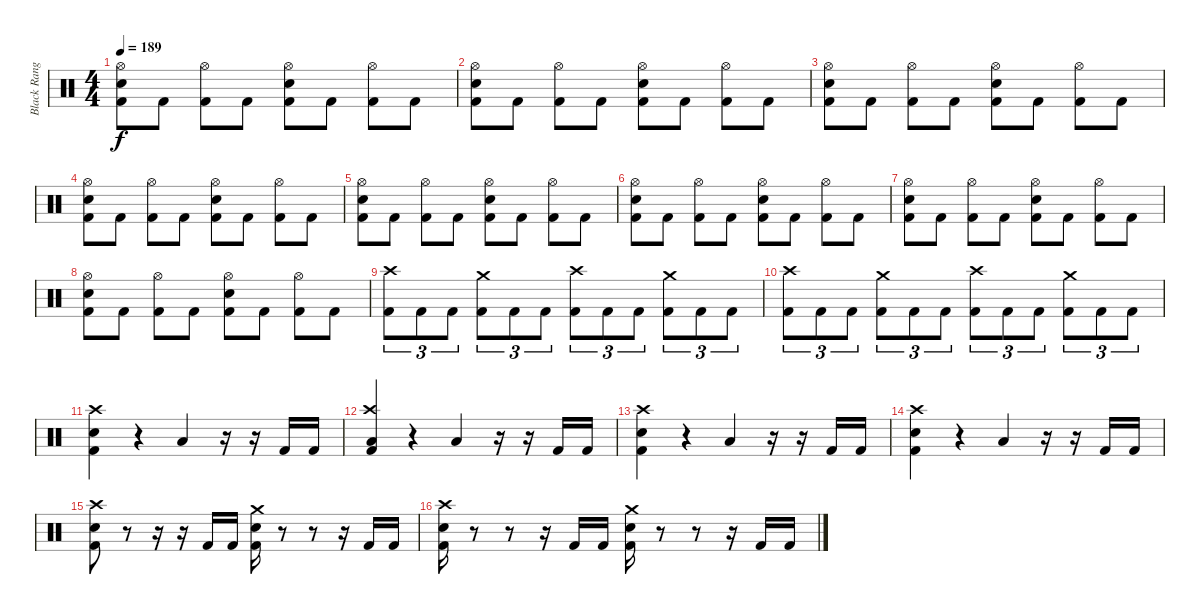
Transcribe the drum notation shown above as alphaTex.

\track ("Black Ranger (Drums)" "Black Rang") {instrument percussion}
\staff {score}
\articulation defaults
\ts (4 4)
\tempo 189
\clef neutral
\ks c
("Kick (hit) 2" "Snare (hit) 2" "Hi-Hat (open)").8{dy f} "Kick (hit) 2".8 ("Kick (hit) 2" "Hi-Hat (open)").8 "Kick (hit) 2".8 ("Kick (hit) 2" "Snare (hit) 2" "Hi-Hat (open)").8 "Kick (hit) 2".8 ("Kick (hit) 2" "Hi-Hat (open)").8 "Kick (hit) 2".8 |
("Kick (hit) 2" "Snare (hit) 2" "Hi-Hat (open)").8 "Kick (hit) 2".8 ("Kick (hit) 2" "Hi-Hat (open)").8 "Kick (hit) 2".8 ("Kick (hit) 2" "Snare (hit) 2" "Hi-Hat (open)").8 "Kick (hit) 2".8 ("Kick (hit) 2" "Hi-Hat (open)").8 "Kick (hit) 2".8 |
("Kick (hit) 2" "Snare (hit) 2" "Hi-Hat (open)").8 "Kick (hit) 2".8 ("Kick (hit) 2" "Hi-Hat (open)").8 "Kick (hit) 2".8 ("Kick (hit) 2" "Snare (hit) 2" "Hi-Hat (open)").8 "Kick (hit) 2".8 ("Kick (hit) 2" "Hi-Hat (open)").8 "Kick (hit) 2".8 |
("Kick (hit) 2" "Snare (hit) 2" "Hi-Hat (open)").8 "Kick (hit) 2".8 ("Kick (hit) 2" "Hi-Hat (open)").8 "Kick (hit) 2".8 ("Kick (hit) 2" "Snare (hit) 2" "Hi-Hat (open)").8 "Kick (hit) 2".8 ("Kick (hit) 2" "Hi-Hat (open)").8 "Kick (hit) 2".8 |
("Kick (hit) 2" "Snare (hit) 2" "Hi-Hat (open)").8 "Kick (hit) 2".8 ("Kick (hit) 2" "Hi-Hat (open)").8 "Kick (hit) 2".8 ("Kick (hit) 2" "Snare (hit) 2" "Hi-Hat (open)").8 "Kick (hit) 2".8 ("Kick (hit) 2" "Hi-Hat (open)").8 "Kick (hit) 2".8 |
("Kick (hit) 2" "Snare (hit) 2" "Hi-Hat (open)").8 "Kick (hit) 2".8 ("Kick (hit) 2" "Hi-Hat (open)").8 "Kick (hit) 2".8 ("Kick (hit) 2" "Snare (hit) 2" "Hi-Hat (open)").8 "Kick (hit) 2".8 ("Kick (hit) 2" "Hi-Hat (open)").8 "Kick (hit) 2".8 |
("Kick (hit) 2" "Snare (hit) 2" "Hi-Hat (open)").8 "Kick (hit) 2".8 ("Kick (hit) 2" "Hi-Hat (open)").8 "Kick (hit) 2".8 ("Kick (hit) 2" "Snare (hit) 2" "Hi-Hat (open)").8 "Kick (hit) 2".8 ("Kick (hit) 2" "Hi-Hat (open)").8 "Kick (hit) 2".8 |
("Kick (hit) 2" "Snare (hit) 2" "Hi-Hat (open)").8 "Kick (hit) 2".8 ("Kick (hit) 2" "Hi-Hat (open)").8 "Kick (hit) 2".8 ("Kick (hit) 2" "Snare (hit) 2" "Hi-Hat (open)").8 "Kick (hit) 2".8 ("Kick (hit) 2" "Hi-Hat (open)").8 "Kick (hit) 2".8 |
("Kick (hit) 2" "Crash high (hit)").8{tu (3 2)} "Kick (hit) 2".8{tu (3 2)} "Kick (hit) 2".8{tu (3 2)} ("Kick (hit) 2" "Crash medium (hit)").8{tu (3 2)} "Kick (hit) 2".8{tu (3 2)} "Kick (hit) 2".8{tu (3 2)} ("Kick (hit) 2" "Crash high (hit)").8{tu (3 2)} "Kick (hit) 2".8{tu (3 2)} "Kick (hit) 2".8{tu (3 2)} ("Kick (hit) 2" "Crash medium (hit)").8{tu (3 2)} "Kick (hit) 2".8{tu (3 2)} "Kick (hit) 2".8{tu (3 2)} |
("Kick (hit) 2" "Crash high (hit)").8{tu (3 2)} "Kick (hit) 2".8{tu (3 2)} "Kick (hit) 2".8{tu (3 2)} ("Kick (hit) 2" "Crash medium (hit)").8{tu (3 2)} "Kick (hit) 2".8{tu (3 2)} "Kick (hit) 2".8{tu (3 2)} ("Kick (hit) 2" "Crash high (hit)").8{tu (3 2)} "Kick (hit) 2".8{tu (3 2)} "Kick (hit) 2".8{tu (3 2)} ("Kick (hit) 2" "Crash medium (hit)").8{tu (3 2)} "Kick (hit) 2".8{tu (3 2)} "Kick (hit) 2".8{tu (3 2)} |
("Crash high (hit)" "Kick (hit) 2" "Snare (hit) 2").4 r.4 "Low Tom (hit)".4 r.16 r.16 "Kick (hit) 2".16 "Kick (hit) 2".16 |
("Low Tom (hit)" "Kick (hit) 2" "Crash high (hit)").4 r.4 "Low Tom (hit)".4 r.16 r.16 "Kick (hit) 2".16 "Kick (hit) 2".16 |
("Crash high (hit)" "Kick (hit) 2" "Snare (hit) 2").4 r.4 "Low Tom (hit)".4 r.16 r.16 "Kick (hit) 2".16 "Kick (hit) 2".16 |
("Crash high (hit)" "Kick (hit) 2" "Snare (hit) 2").4 r.4 "Low Tom (hit)".4 r.16 r.16 "Kick (hit) 2".16 "Kick (hit) 2".16 |
("Snare (hit) 2" "Kick (hit) 2" "Crash high (hit)").8 r.8 r.16 r.16 "Kick (hit) 2".16 "Kick (hit) 2".16 ("Snare (hit) 2" "Crash medium (hit)" "Kick (hit) 2").16 r.8 r.8 r.16 "Kick (hit) 2".16 "Kick (hit) 2".16 |
("Snare (hit) 2" "Crash high (hit)" "Kick (hit) 2").16 r.8 r.8 r.16 "Kick (hit) 2".16 "Kick (hit) 2".16 ("Snare (hit) 2" "Crash medium (hit)" "Kick (hit) 2").16 r.8 r.8 r.16 "Kick (hit) 2".16 "Kick (hit) 2".16
